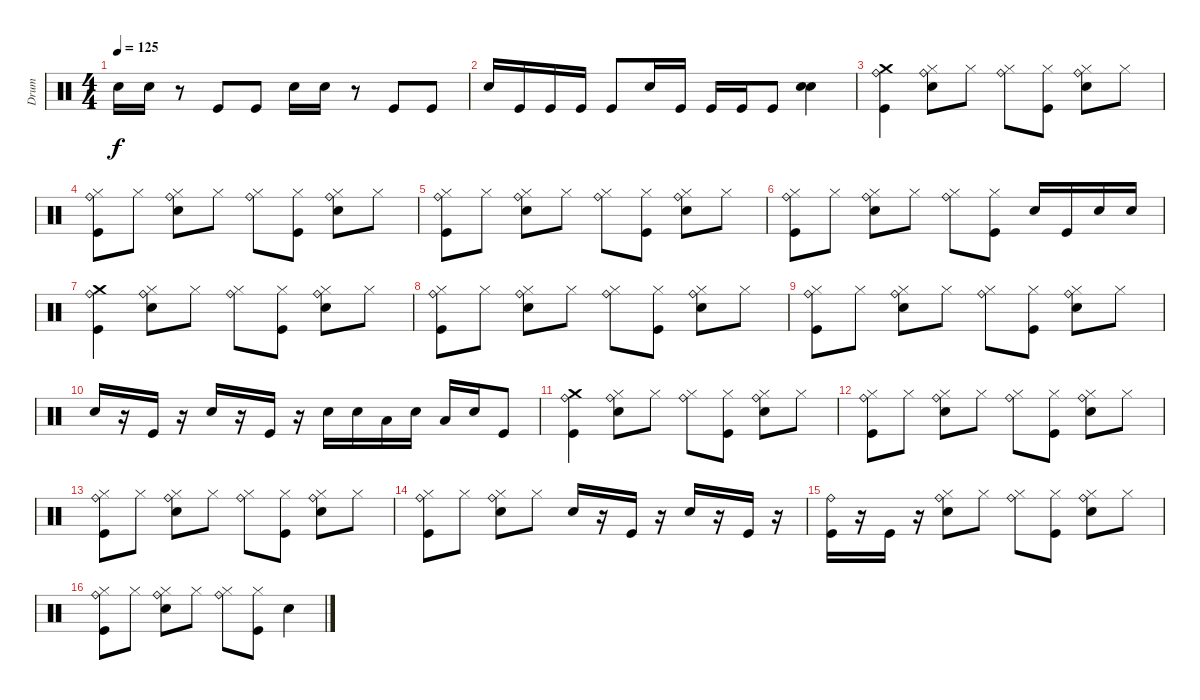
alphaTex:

\track ("Drum" "Drum") {instrument percussion}
\staff {score}
\articulation defaults
\ts (4 4)
\tempo 125
\clef neutral
\ks c "Snare (hit) 2".16{dy f} "Snare (hit) 2".16
r.8 "Kick (hit)".8 "Kick (hit)".8 "Snare (hit) 2".16 "Snare (hit) 2".16 r.8 "Kick (hit)".8 "Kick (hit)".8 |
"Snare (hit) 2".16 "Kick (hit)".16 "Kick (hit)".16 "Kick (hit)".16 "Kick (hit)".8 "Snare (hit) 2".16 "Kick (hit)".16 "Kick (hit)".16 "Kick (hit)".16 "Kick (hit)".8 ("Snare (hit) 2" "Electric Snare (hit)").4 |
("Kick (hit)" "Crash medium (hit)" "Ride (bell)").4 ("Electric Snare (hit)" "Hi-Hat (closed)" "Ride (bell)").8 "Hi-Hat (closed)".8 ("Hi-Hat (closed)" "Ride (bell)").8 ("Kick (hit)" "Hi-Hat (closed)").8 ("Electric Snare (hit)" "Hi-Hat (closed)" "Ride (bell)").8 "Hi-Hat (closed)".8 |
("Kick (hit)" "Hi-Hat (closed)" "Ride (bell)").8 "Hi-Hat (closed)".8 ("Electric Snare (hit)" "Hi-Hat (closed)" "Ride (bell)").8 "Hi-Hat (closed)".8 ("Hi-Hat (closed)" "Ride (bell)").8 ("Kick (hit)" "Hi-Hat (closed)").8 ("Electric Snare (hit)" "Hi-Hat (closed)" "Ride (bell)").8 "Hi-Hat (closed)".8 |
("Kick (hit)" "Hi-Hat (closed)" "Ride (bell)").8 "Hi-Hat (closed)".8 ("Electric Snare (hit)" "Hi-Hat (closed)" "Ride (bell)").8 "Hi-Hat (closed)".8 ("Hi-Hat (closed)" "Ride (bell)").8 ("Kick (hit)" "Hi-Hat (closed)").8 ("Electric Snare (hit)" "Hi-Hat (closed)" "Ride (bell)").8 "Hi-Hat (closed)".8 |
("Kick (hit)" "Hi-Hat (closed)" "Ride (bell)").8 "Hi-Hat (closed)".8 ("Electric Snare (hit)" "Hi-Hat (closed)" "Ride (bell)").8 "Hi-Hat (closed)".8 ("Hi-Hat (closed)" "Ride (bell)").8 ("Kick (hit)" "Hi-Hat (closed)").8 "Electric Snare (hit)".16 "Kick (hit)".16 "Snare (hit) 2".16 "Electric Snare (hit)".16 |
("Kick (hit)" "Crash medium (hit)" "Ride (bell)").4 ("Electric Snare (hit)" "Hi-Hat (closed)" "Ride (bell)").8 "Hi-Hat (closed)".8 ("Hi-Hat (closed)" "Ride (bell)").8 ("Kick (hit)" "Hi-Hat (closed)").8 ("Electric Snare (hit)" "Hi-Hat (closed)" "Ride (bell)").8 "Hi-Hat (closed)".8 |
("Kick (hit)" "Hi-Hat (closed)" "Ride (bell)").8 "Hi-Hat (closed)".8 ("Electric Snare (hit)" "Hi-Hat (closed)" "Ride (bell)").8 "Hi-Hat (closed)".8 ("Hi-Hat (closed)" "Ride (bell)").8 ("Kick (hit)" "Hi-Hat (closed)").8 ("Electric Snare (hit)" "Hi-Hat (closed)" "Ride (bell)").8 "Hi-Hat (closed)".8 |
("Kick (hit)" "Hi-Hat (closed)" "Ride (bell)").8 "Hi-Hat (closed)".8 ("Electric Snare (hit)" "Hi-Hat (closed)" "Ride (bell)").8 "Hi-Hat (closed)".8 ("Hi-Hat (closed)" "Ride (bell)").8 ("Kick (hit)" "Hi-Hat (closed)").8 ("Electric Snare (hit)" "Hi-Hat (closed)" "Ride (bell)").8 "Hi-Hat (closed)".8 |
"Electric Snare (hit)".16 r.16 "Kick (hit)".16 r.16 "Electric Snare (hit)".16 r.16 "Kick (hit)".16 r.16 "Electric Snare (hit)".16 "Electric Snare (hit)".16 "Low Tom (hit)".16 "Electric Snare (hit)".16 "Low Tom (hit)".16 "Electric Snare (hit)".16 "Kick (hit)".8 |
("Kick (hit)" "Crash medium (hit)" "Ride (bell)").4 ("Electric Snare (hit)" "Hi-Hat (closed)" "Ride (bell)").8 "Hi-Hat (closed)".8 ("Hi-Hat (closed)" "Ride (bell)").8 ("Kick (hit)" "Hi-Hat (closed)").8 ("Electric Snare (hit)" "Hi-Hat (closed)" "Ride (bell)").8 "Hi-Hat (closed)".8 |
("Kick (hit)" "Hi-Hat (closed)" "Ride (bell)").8 "Hi-Hat (closed)".8 ("Electric Snare (hit)" "Hi-Hat (closed)" "Ride (bell)").8 "Hi-Hat (closed)".8 ("Hi-Hat (closed)" "Ride (bell)").8 ("Kick (hit)" "Hi-Hat (closed)").8 ("Electric Snare (hit)" "Hi-Hat (closed)" "Ride (bell)").8 "Hi-Hat (closed)".8 |
("Kick (hit)" "Hi-Hat (closed)" "Ride (bell)").8 "Hi-Hat (closed)".8 ("Electric Snare (hit)" "Hi-Hat (closed)" "Ride (bell)").8 "Hi-Hat (closed)".8 ("Hi-Hat (closed)" "Ride (bell)").8 ("Kick (hit)" "Hi-Hat (closed)").8 ("Electric Snare (hit)" "Hi-Hat (closed)" "Ride (bell)").8 "Hi-Hat (closed)".8 |
("Kick (hit)" "Hi-Hat (closed)" "Ride (bell)").8 "Hi-Hat (closed)".8 ("Electric Snare (hit)" "Hi-Hat (closed)" "Ride (bell)").8 "Hi-Hat (closed)".8 "Electric Snare (hit)".16 r.16 "Kick (hit)".16 r.16 "Electric Snare (hit)".16 r.16 "Kick (hit)".16 r.16 |
("Kick (hit)" "Ride (bell)").16 r.16 "Kick (hit)".16 r.16 ("Electric Snare (hit)" "Hi-Hat (closed)" "Ride (bell)").8 "Hi-Hat (closed)".8 ("Hi-Hat (closed)" "Ride (bell)").8 ("Kick (hit)" "Hi-Hat (closed)").8 ("Electric Snare (hit)" "Hi-Hat (closed)" "Ride (bell)").8 "Hi-Hat (closed)".8 |
("Kick (hit)" "Hi-Hat (closed)" "Ride (bell)").8 "Hi-Hat (closed)".8 ("Electric Snare (hit)" "Hi-Hat (closed)" "Ride (bell)").8 "Hi-Hat (closed)".8 ("Hi-Hat (closed)" "Ride (bell)").8 ("Kick (hit)" "Hi-Hat (closed)").8 "Electric Snare (hit)".4
